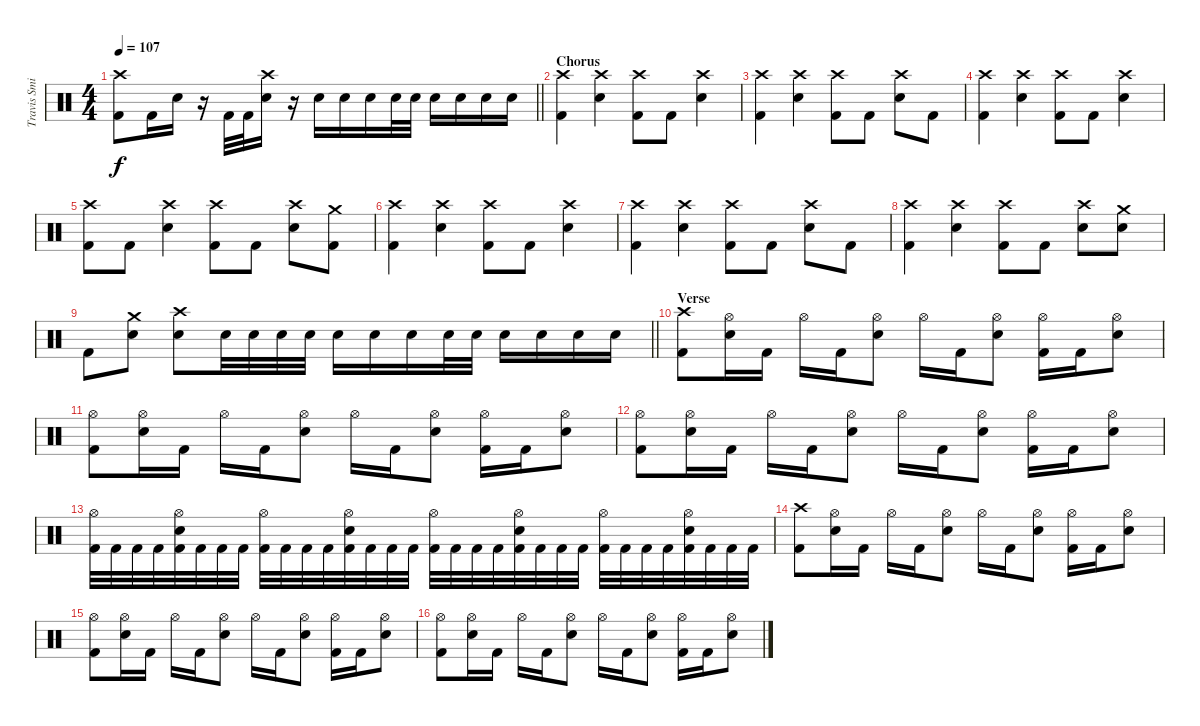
\track ("Travis Smith" "Travis Smi") {instrument percussion}
\staff {score}
\articulation defaults
\ts (4 4)
\tempo 107
\clef neutral
\barLineRight lightlight
\ks c
("Crash high (hit)" "Kick (hit) 2").8{dy f} "Kick (hit) 2".16 "Electric Snare (hit)".16 r.16 "Kick (hit) 2".32 "Kick (hit) 2".32 ("Crash high (hit)" "Electric Snare (hit)").16 r.16 "Electric Snare (hit)".16 "Electric Snare (hit)".16 "Electric Snare (hit)".16 "Electric Snare (hit)".32 "Electric Snare (hit)".32 "Electric Snare (hit)".16 "Electric Snare (hit)".16 "Electric Snare (hit)".16 "Electric Snare (hit)".16 |
\section ("" "Chorus")
("Crash high (hit)" "Kick (hit) 2").4 ("Crash high (hit)" "Electric Snare (hit)").4 ("Crash high (hit)" "Kick (hit) 2").8 "Kick (hit) 2".8 ("Crash high (hit)" "Electric Snare (hit)").4 |
("Crash high (hit)" "Kick (hit) 2").4 ("Crash high (hit)" "Electric Snare (hit)").4 ("Crash high (hit)" "Kick (hit) 2").8 "Kick (hit) 2".8 ("Crash high (hit)" "Electric Snare (hit)").8 "Kick (hit) 2".8 |
("Crash high (hit)" "Kick (hit) 2").4 ("Crash high (hit)" "Electric Snare (hit)").4 ("Crash high (hit)" "Kick (hit) 2").8 "Kick (hit) 2".8 ("Crash high (hit)" "Electric Snare (hit)").4 |
("Crash high (hit)" "Kick (hit) 2").8 "Kick (hit) 2".8 ("Crash high (hit)" "Electric Snare (hit)").4 ("Crash high (hit)" "Kick (hit) 2").8 "Kick (hit) 2".8 ("Crash high (hit)" "Electric Snare (hit)").8 ("Crash medium (hit)" "Kick (hit) 2").8 |
("Crash high (hit)" "Kick (hit) 2").4 ("Crash high (hit)" "Electric Snare (hit)").4 ("Crash high (hit)" "Kick (hit) 2").8 "Kick (hit) 2".8 ("Crash high (hit)" "Electric Snare (hit)").4 |
("Crash high (hit)" "Kick (hit) 2").4 ("Crash high (hit)" "Electric Snare (hit)").4 ("Crash high (hit)" "Kick (hit) 2").8 "Kick (hit) 2".8 ("Crash high (hit)" "Electric Snare (hit)").8 "Kick (hit) 2".8 |
("Crash high (hit)" "Kick (hit) 2").4 ("Crash high (hit)" "Electric Snare (hit)").4 ("Crash high (hit)" "Kick (hit) 2").8 "Kick (hit) 2".8 ("Crash high (hit)" "Electric Snare (hit)").8 ("Crash medium (hit)" "Electric Snare (hit)").8 |
\barLineRight lightlight "Kick (hit) 2".8
("Crash medium (hit)" "Electric Snare (hit)").8 ("Crash high (hit)" "Electric Snare (hit)").8 "Electric Snare (hit)".32 "Electric Snare (hit)".32 "Electric Snare (hit)".32 "Electric Snare (hit)".32 "Electric Snare (hit)".16 "Electric Snare (hit)".16 "Electric Snare (hit)".16 "Electric Snare (hit)".32 "Electric Snare (hit)".32 "Electric Snare (hit)".16 "Electric Snare (hit)".16 "Electric Snare (hit)".16 "Electric Snare (hit)".16 |
\section ("" "Verse")
("Crash high (hit)" "Kick (hit) 2").8 ("Hi-Hat (open)" "Electric Snare (hit)").16 "Kick (hit) 2".16 "Hi-Hat (open)".16 "Kick (hit) 2".16 ("Hi-Hat (open)" "Electric Snare (hit)").8 "Hi-Hat (open)".16 "Kick (hit) 2".16 ("Hi-Hat (open)" "Electric Snare (hit)").8 ("Hi-Hat (open)" "Kick (hit) 2").16 "Kick (hit) 2".16 ("Hi-Hat (open)" "Electric Snare (hit)").8 |
("Hi-Hat (open)" "Kick (hit) 2").8 ("Hi-Hat (open)" "Electric Snare (hit)").16 "Kick (hit) 2".16 "Hi-Hat (open)".16 "Kick (hit) 2".16 ("Hi-Hat (open)" "Electric Snare (hit)").8 "Hi-Hat (open)".16 "Kick (hit) 2".16 ("Hi-Hat (open)" "Electric Snare (hit)").8 ("Hi-Hat (open)" "Kick (hit) 2").16 "Kick (hit) 2".16 ("Hi-Hat (open)" "Electric Snare (hit)").8 |
("Hi-Hat (open)" "Kick (hit) 2").8 ("Hi-Hat (open)" "Electric Snare (hit)").16 "Kick (hit) 2".16 "Hi-Hat (open)".16 "Kick (hit) 2".16 ("Hi-Hat (open)" "Electric Snare (hit)").8 "Hi-Hat (open)".16 "Kick (hit) 2".16 ("Hi-Hat (open)" "Electric Snare (hit)").8 ("Hi-Hat (open)" "Kick (hit) 2").16 "Kick (hit) 2".16 ("Hi-Hat (open)" "Electric Snare (hit)").8 |
("Hi-Hat (open)" "Kick (hit) 2").32 "Kick (hit) 2".32 "Kick (hit) 2".32 "Kick (hit) 2".32 ("Hi-Hat (open)" "Electric Snare (hit)" "Kick (hit) 2").32 "Kick (hit) 2".32 "Kick (hit) 2".32 "Kick (hit) 2".32 ("Hi-Hat (open)" "Kick (hit) 2").32 "Kick (hit) 2".32 "Kick (hit) 2".32 "Kick (hit) 2".32 ("Hi-Hat (open)" "Electric Snare (hit)" "Kick (hit) 2").32 "Kick (hit) 2".32 "Kick (hit) 2".32 "Kick (hit) 2".32 ("Hi-Hat (open)" "Kick (hit) 2").32 "Kick (hit) 2".32 "Kick (hit) 2".32 "Kick (hit) 2".32 ("Hi-Hat (open)" "Electric Snare (hit)" "Kick (hit) 2").32 "Kick (hit) 2".32 "Kick (hit) 2".32 "Kick (hit) 2".32 ("Hi-Hat (open)" "Kick (hit) 2").32 "Kick (hit) 2".32 "Kick (hit) 2".32 "Kick (hit) 2".32 ("Hi-Hat (open)" "Electric Snare (hit)" "Kick (hit) 2").32 "Kick (hit) 2".32 "Kick (hit) 2".32 "Kick (hit) 2".32 |
("Crash high (hit)" "Kick (hit) 2").8 ("Hi-Hat (open)" "Electric Snare (hit)").16 "Kick (hit) 2".16 "Hi-Hat (open)".16 "Kick (hit) 2".16 ("Hi-Hat (open)" "Electric Snare (hit)").8 "Hi-Hat (open)".16 "Kick (hit) 2".16 ("Hi-Hat (open)" "Electric Snare (hit)").8 ("Hi-Hat (open)" "Kick (hit) 2").16 "Kick (hit) 2".16 ("Hi-Hat (open)" "Electric Snare (hit)").8 |
("Hi-Hat (open)" "Kick (hit) 2").8 ("Hi-Hat (open)" "Electric Snare (hit)").16 "Kick (hit) 2".16 "Hi-Hat (open)".16 "Kick (hit) 2".16 ("Hi-Hat (open)" "Electric Snare (hit)").8 "Hi-Hat (open)".16 "Kick (hit) 2".16 ("Hi-Hat (open)" "Electric Snare (hit)").8 ("Hi-Hat (open)" "Kick (hit) 2").16 "Kick (hit) 2".16 ("Hi-Hat (open)" "Electric Snare (hit)").8 |
("Hi-Hat (open)" "Kick (hit) 2").8 ("Hi-Hat (open)" "Electric Snare (hit)").16 "Kick (hit) 2".16 "Hi-Hat (open)".16 "Kick (hit) 2".16 ("Hi-Hat (open)" "Electric Snare (hit)").8 "Hi-Hat (open)".16 "Kick (hit) 2".16 ("Hi-Hat (open)" "Electric Snare (hit)").8 ("Hi-Hat (open)" "Kick (hit) 2").16 "Kick (hit) 2".16 ("Hi-Hat (open)" "Electric Snare (hit)").8
